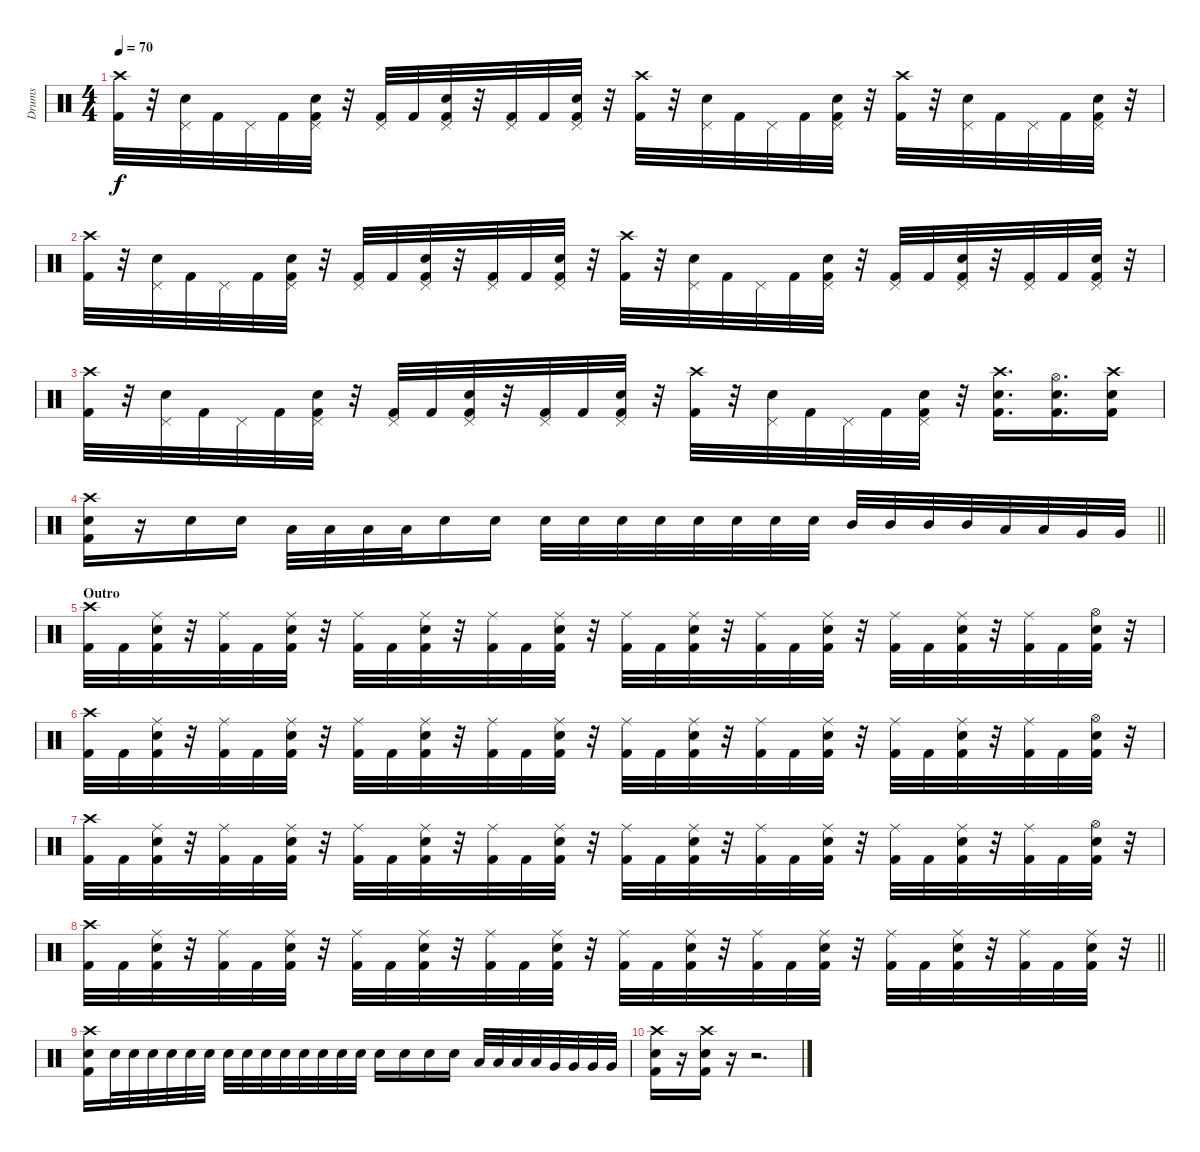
\track ("Drums" "Drums") {instrument percussion}
\staff {score}
\articulation defaults
\ts (4 4)
\tempo 70
\clef neutral
\ks c
("Crash high (hit)" "Kick (hit) 2").32{dy f} r.32 ("Pedal Hi-Hat (hit)" "Snare (hit) 2").32 "Kick (hit) 2".32 "Pedal Hi-Hat (hit)".32 "Kick (hit) 2".32 ("Pedal Hi-Hat (hit)" "Snare (hit) 2" "Kick (hit) 2").32 r.32 ("Pedal Hi-Hat (hit)" "Kick (hit) 2").32 "Kick (hit) 2".32 ("Pedal Hi-Hat (hit)" "Snare (hit) 2" "Kick (hit) 2").32 r.32 ("Pedal Hi-Hat (hit)" "Kick (hit) 2").32 "Kick (hit) 2".32 ("Pedal Hi-Hat (hit)" "Snare (hit) 2" "Kick (hit) 2").32 r.32 ("Crash high (hit)" "Kick (hit) 2").32 r.32 ("Pedal Hi-Hat (hit)" "Snare (hit) 2").32 "Kick (hit) 2".32 "Pedal Hi-Hat (hit)".32 "Kick (hit) 2".32 ("Pedal Hi-Hat (hit)" "Snare (hit) 2" "Kick (hit) 2").32 r.32 ("Crash high (hit)" "Kick (hit) 2").32 r.32 ("Pedal Hi-Hat (hit)" "Snare (hit) 2").32 "Kick (hit) 2".32 "Pedal Hi-Hat (hit)".32 "Kick (hit) 2".32 ("Pedal Hi-Hat (hit)" "Snare (hit) 2" "Kick (hit) 2").32 r.32 |
("Crash high (hit)" "Kick (hit) 2").32 r.32 ("Pedal Hi-Hat (hit)" "Snare (hit) 2").32 "Kick (hit) 2".32 "Pedal Hi-Hat (hit)".32 "Kick (hit) 2".32 ("Pedal Hi-Hat (hit)" "Snare (hit) 2" "Kick (hit) 2").32 r.32 ("Pedal Hi-Hat (hit)" "Kick (hit) 2").32 "Kick (hit) 2".32 ("Pedal Hi-Hat (hit)" "Snare (hit) 2" "Kick (hit) 2").32 r.32 ("Pedal Hi-Hat (hit)" "Kick (hit) 2").32 "Kick (hit) 2".32 ("Pedal Hi-Hat (hit)" "Snare (hit) 2" "Kick (hit) 2").32 r.32 ("Crash high (hit)" "Kick (hit) 2").32 r.32 ("Pedal Hi-Hat (hit)" "Snare (hit) 2").32 "Kick (hit) 2".32 "Pedal Hi-Hat (hit)".32 "Kick (hit) 2".32 ("Pedal Hi-Hat (hit)" "Snare (hit) 2" "Kick (hit) 2").32 r.32 ("Pedal Hi-Hat (hit)" "Kick (hit) 2").32 "Kick (hit) 2".32 ("Pedal Hi-Hat (hit)" "Snare (hit) 2" "Kick (hit) 2").32 r.32 ("Pedal Hi-Hat (hit)" "Kick (hit) 2").32 "Kick (hit) 2".32 ("Pedal Hi-Hat (hit)" "Snare (hit) 2" "Kick (hit) 2").32 r.32 |
("Crash high (hit)" "Kick (hit) 2").32 r.32 ("Pedal Hi-Hat (hit)" "Snare (hit) 2").32 "Kick (hit) 2".32 "Pedal Hi-Hat (hit)".32 "Kick (hit) 2".32 ("Pedal Hi-Hat (hit)" "Snare (hit) 2" "Kick (hit) 2").32 r.32 ("Pedal Hi-Hat (hit)" "Kick (hit) 2").32 "Kick (hit) 2".32 ("Pedal Hi-Hat (hit)" "Snare (hit) 2" "Kick (hit) 2").32 r.32 ("Pedal Hi-Hat (hit)" "Kick (hit) 2").32 "Kick (hit) 2".32 ("Pedal Hi-Hat (hit)" "Snare (hit) 2" "Kick (hit) 2").32 r.32 ("Crash high (hit)" "Kick (hit) 2").32 r.32 ("Pedal Hi-Hat (hit)" "Snare (hit) 2").32 "Kick (hit) 2".32 "Pedal Hi-Hat (hit)".32 "Kick (hit) 2".32 ("Pedal Hi-Hat (hit)" "Snare (hit) 2" "Kick (hit) 2").32 r.32 ("Crash high (hit)" "Snare (hit) 2" "Kick (hit) 2").16{d} ("Hi-Hat (open)" "Snare (hit) 2" "Kick (hit) 2").16{d} ("Crash high (hit)" "Snare (hit) 2" "Kick (hit) 2").16 |
\barLineRight lightlight
("Crash high (hit)" "Snare (hit) 2" "Kick (hit) 2").16 r.16 "Snare (hit) 2".16 "Snare (hit) 2".16 "Low Tom (hit)".32 "Low Tom (hit)".32 "Low Tom (hit)".32 "Low Tom (hit)".32 "Snare (hit) 2".16 "Snare (hit) 2".16 "Snare (hit) 2".32 "Snare (hit) 2".32 "Snare (hit) 2".32 "Snare (hit) 2".32 "Snare (hit) 2".32 "Snare (hit) 2".32 "Snare (hit) 2".32 "Snare (hit) 2".32 "Mid Tom (hit)".32 "Mid Tom (hit)".32 "Mid Tom (hit)".32 "Mid Tom (hit)".32 "Low Tom (hit)".32 "Low Tom (hit)".32 "Very Low Tom (hit)".32 "Very Low Tom (hit)".32 |
\section ("" "Outro")
("Crash high (hit)" "Kick (hit) 2").32 "Kick (hit) 2".32 ("Ride (middle)" "Snare (hit) 2" "Kick (hit) 2").32 r.32 ("Ride (middle)" "Kick (hit) 2").32 "Kick (hit) 2".32 ("Ride (middle)" "Snare (hit) 2" "Kick (hit) 2").32 r.32 ("Ride (middle)" "Kick (hit) 2").32 "Kick (hit) 2".32 ("Ride (middle)" "Snare (hit) 2" "Kick (hit) 2").32 r.32 ("Ride (middle)" "Kick (hit) 2").32 "Kick (hit) 2".32 ("Ride (middle)" "Snare (hit) 2" "Kick (hit) 2").32 r.32 ("Ride (middle)" "Kick (hit) 2").32 "Kick (hit) 2".32 ("Ride (middle)" "Snare (hit) 2" "Kick (hit) 2").32 r.32 ("Ride (middle)" "Kick (hit) 2").32 "Kick (hit) 2".32 ("Ride (middle)" "Snare (hit) 2" "Kick (hit) 2").32 r.32 ("Ride (middle)" "Kick (hit) 2").32 "Kick (hit) 2".32 ("Ride (middle)" "Snare (hit) 2" "Kick (hit) 2").32 r.32 ("Ride (middle)" "Kick (hit) 2").32 "Kick (hit) 2".32 ("Hi-Hat (open)" "Snare (hit) 2" "Kick (hit) 2").32 r.32 |
("Crash high (hit)" "Kick (hit) 2").32 "Kick (hit) 2".32 ("Ride (middle)" "Snare (hit) 2" "Kick (hit) 2").32 r.32 ("Ride (middle)" "Kick (hit) 2").32 "Kick (hit) 2".32 ("Ride (middle)" "Snare (hit) 2" "Kick (hit) 2").32 r.32 ("Ride (middle)" "Kick (hit) 2").32 "Kick (hit) 2".32 ("Ride (middle)" "Snare (hit) 2" "Kick (hit) 2").32 r.32 ("Ride (middle)" "Kick (hit) 2").32 "Kick (hit) 2".32 ("Ride (middle)" "Snare (hit) 2" "Kick (hit) 2").32 r.32 ("Ride (middle)" "Kick (hit) 2").32 "Kick (hit) 2".32 ("Ride (middle)" "Snare (hit) 2" "Kick (hit) 2").32 r.32 ("Ride (middle)" "Kick (hit) 2").32 "Kick (hit) 2".32 ("Ride (middle)" "Snare (hit) 2" "Kick (hit) 2").32 r.32 ("Ride (middle)" "Kick (hit) 2").32 "Kick (hit) 2".32 ("Ride (middle)" "Snare (hit) 2" "Kick (hit) 2").32 r.32 ("Ride (middle)" "Kick (hit) 2").32 "Kick (hit) 2".32 ("Hi-Hat (open)" "Snare (hit) 2" "Kick (hit) 2").32 r.32 |
("Crash high (hit)" "Kick (hit) 2").32 "Kick (hit) 2".32 ("Ride (middle)" "Snare (hit) 2" "Kick (hit) 2").32 r.32 ("Ride (middle)" "Kick (hit) 2").32 "Kick (hit) 2".32 ("Ride (middle)" "Snare (hit) 2" "Kick (hit) 2").32 r.32 ("Ride (middle)" "Kick (hit) 2").32 "Kick (hit) 2".32 ("Ride (middle)" "Snare (hit) 2" "Kick (hit) 2").32 r.32 ("Ride (middle)" "Kick (hit) 2").32 "Kick (hit) 2".32 ("Ride (middle)" "Snare (hit) 2" "Kick (hit) 2").32 r.32 ("Ride (middle)" "Kick (hit) 2").32 "Kick (hit) 2".32 ("Ride (middle)" "Snare (hit) 2" "Kick (hit) 2").32 r.32 ("Ride (middle)" "Kick (hit) 2").32 "Kick (hit) 2".32 ("Ride (middle)" "Snare (hit) 2" "Kick (hit) 2").32 r.32 ("Ride (middle)" "Kick (hit) 2").32 "Kick (hit) 2".32 ("Ride (middle)" "Snare (hit) 2" "Kick (hit) 2").32 r.32 ("Ride (middle)" "Kick (hit) 2").32 "Kick (hit) 2".32 ("Hi-Hat (open)" "Snare (hit) 2" "Kick (hit) 2").32 r.32 |
\barLineRight lightlight
("Crash high (hit)" "Kick (hit) 2").32 "Kick (hit) 2".32 ("Ride (middle)" "Snare (hit) 2" "Kick (hit) 2").32 r.32 ("Ride (middle)" "Kick (hit) 2").32 "Kick (hit) 2".32 ("Ride (middle)" "Snare (hit) 2" "Kick (hit) 2").32 r.32 ("Ride (middle)" "Kick (hit) 2").32 "Kick (hit) 2".32 ("Ride (middle)" "Snare (hit) 2" "Kick (hit) 2").32 r.32 ("Ride (middle)" "Kick (hit) 2").32 "Kick (hit) 2".32 ("Ride (middle)" "Snare (hit) 2" "Kick (hit) 2").32 r.32 ("Ride (middle)" "Kick (hit) 2").32 "Kick (hit) 2".32 ("Ride (middle)" "Snare (hit) 2" "Kick (hit) 2").32 r.32 ("Ride (middle)" "Kick (hit) 2").32 "Kick (hit) 2".32 ("Ride (middle)" "Snare (hit) 2" "Kick (hit) 2").32 r.32 ("Ride (middle)" "Kick (hit) 2").32 "Kick (hit) 2".32 ("Ride (middle)" "Snare (hit) 2" "Kick (hit) 2").32 r.32 ("Ride (middle)" "Kick (hit) 2").32 "Kick (hit) 2".32 ("Ride (middle)" "Snare (hit) 2" "Kick (hit) 2").32 r.32 |
("Crash high (hit)" "Snare (hit) 2" "Kick (hit) 2").16 "Snare (hit) 2".32 "Snare (hit) 2".32 "Snare (hit) 2".32 "Snare (hit) 2".32 "Snare (hit) 2".32 "Snare (hit) 2".32 "Snare (hit) 2".32 "Snare (hit) 2".32 "Snare (hit) 2".32 "Snare (hit) 2".32 "Snare (hit) 2".32 "Snare (hit) 2".32 "Snare (hit) 2".32 "Snare (hit) 2".32 "Snare (hit) 2".16 "Snare (hit) 2".16 "Snare (hit) 2".16 "Snare (hit) 2".16 "Low Tom (hit)".32 "Low Tom (hit)".32 "Low Tom (hit)".32 "Low Tom (hit)".32 "Very Low Tom (hit)".32 "Very Low Tom (hit)".32 "Very Low Tom (hit)".32 "Very Low Tom (hit)".32 |
("Crash high (hit)" "Snare (hit) 2" "Kick (hit) 2").16 r.16 ("Crash high (hit)" "Snare (hit) 2" "Kick (hit) 2").16 r.16 r.2{d}
